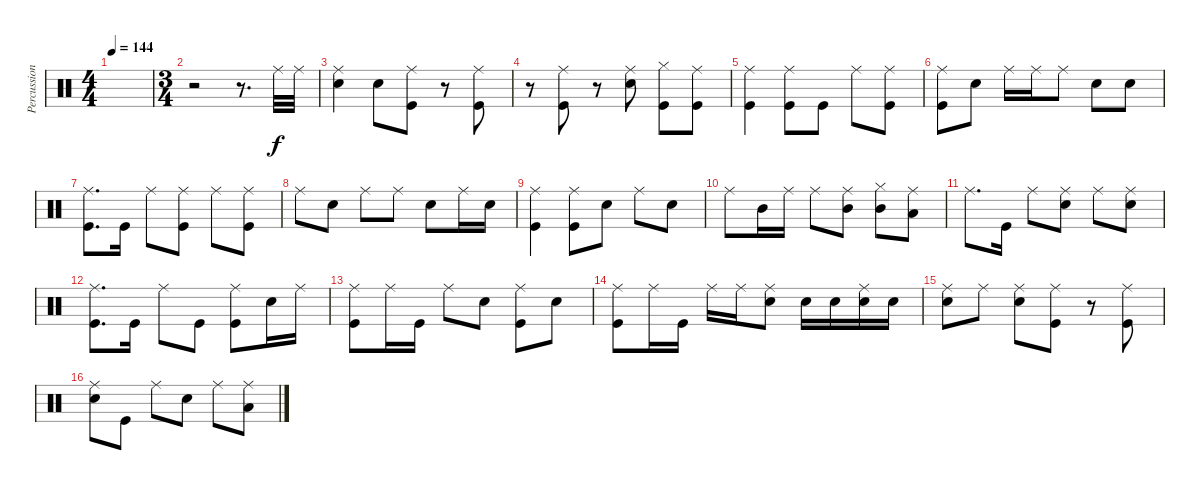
\track ("Percussions" "Percussion") {instrument percussion}
\staff {score}
\articulation defaults
\ts (4 4)
\tempo 144
\clef neutral
\ks c
|
\ts (3 4)
r.2 r.8{d} "Ride (middle)".32 "Ride (middle)".32 |
("Ride (middle)" "Snare (hit) 2").4 "Snare (hit) 2".8 ("Ride (middle)" "Kick (hit)").8 r.8 ("Ride (middle)" "Kick (hit)").8 |
r.8 ("Ride (middle)" "Kick (hit)").8 r.8 ("Ride (middle)" "Snare (hit) 2").8 ("Hi-Hat (closed)" "Kick (hit)").8 ("Ride (middle)" "Kick (hit)").8 |
("Ride (middle)" "Kick (hit)").4 ("Ride (middle)" "Kick (hit)").8 "Kick (hit)".8 "Ride (middle)".8 ("Ride (middle)" "Kick (hit)").8 |
("Ride (middle)" "Kick (hit)").8 "Snare (hit) 2".8 "Ride (middle)".16 "Ride (middle)".16 "Ride (middle)".8 "Snare (hit) 2".8 "Snare (hit) 2".8 |
("Ride (middle)" "Kick (hit)").8{d} "Kick (hit)".16 "Ride (middle)".8 ("Ride (middle)" "Kick (hit)").8 "Ride (middle)".8 ("Ride (middle)" "Kick (hit)").8 |
"Ride (middle)".8 "Snare (hit) 2".8 "Ride (middle)".8 "Ride (middle)".8 "Snare (hit) 2".8 "Ride (middle)".16 "Snare (hit) 2".16 |
("Ride (middle)" "Kick (hit)").4 ("Ride (middle)" "Kick (hit)").8 "Snare (hit) 2".8 "Ride (middle)".8 "Snare (hit) 2".8 |
"Ride (middle)".8 "Mid Tom (hit)".16 "Ride (middle)".16 "Ride (middle)".8 ("Ride (middle)" "Mid Tom (hit)").8 ("Hi-Hat (closed)" "Mid Tom (hit)").8 ("Ride (middle)" "Low Tom (hit)").8 |
"Ride (middle)".8{d} "Kick (hit)".16 "Ride (middle)".8 ("Ride (middle)" "Snare (hit) 2").8 "Ride (middle)".8 ("Ride (middle)" "Snare (hit) 2").8 |
("Ride (middle)" "Kick (hit)").8{d} "Kick (hit)".16 "Ride (middle)".8 "Kick (hit)".8 ("Ride (middle)" "Kick (hit)").8 "Snare (hit) 2".16 "Ride (middle)".16 |
("Ride (middle)" "Kick (hit)").8 "Ride (middle)".16 "Kick (hit)".16 "Ride (middle)".8 "Snare (hit) 2".8 ("Ride (middle)" "Kick (hit)").8 "Snare (hit) 2".8 |
("Ride (middle)" "Kick (hit)").8 "Ride (middle)".16 "Kick (hit)".16 "Ride (middle)".16 "Ride (middle)".16 ("Ride (middle)" "Snare (hit) 2").8 "Snare (hit) 2".16 "Snare (hit) 2".16 ("Ride (middle)" "Snare (hit) 2").16 "Snare (hit) 2".16 |
("Ride (middle)" "Snare (hit) 2").8 "Ride (middle)".8 ("Ride (middle)" "Snare (hit) 2").8 ("Ride (middle)" "Kick (hit)").8 r.8 ("Ride (middle)" "Kick (hit)").8 |
("Ride (middle)" "Snare (hit) 2").8 "Kick (hit)".8 "Ride (middle)".8 "Snare (hit) 2".8 "Ride (middle)".8 ("Ride (middle)" "Low Tom (hit)").8
